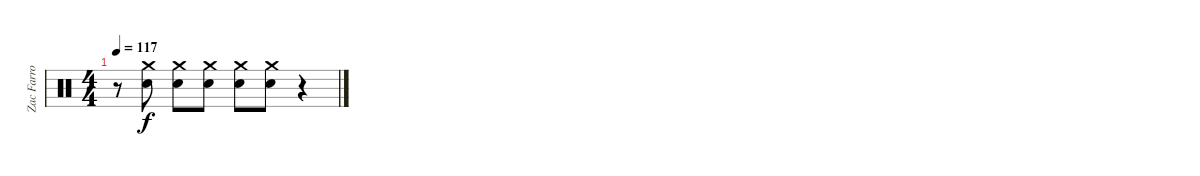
\track ("Zac Farro" "Zac Farro") {instrument percussion}
\staff {score}
\articulation defaults
\ts (4 4)
\tempo 117
\clef neutral
\ks c
r.8{dy f} ("Crash medium (hit)" "Electric Snare (hit)").8 ("Crash medium (hit)" "Electric Snare (hit)").8 ("Crash medium (hit)" "Electric Snare (hit)").8 ("Crash medium (hit)" "Electric Snare (hit)").8 ("Crash medium (hit)" "Electric Snare (hit)").8 r.4
